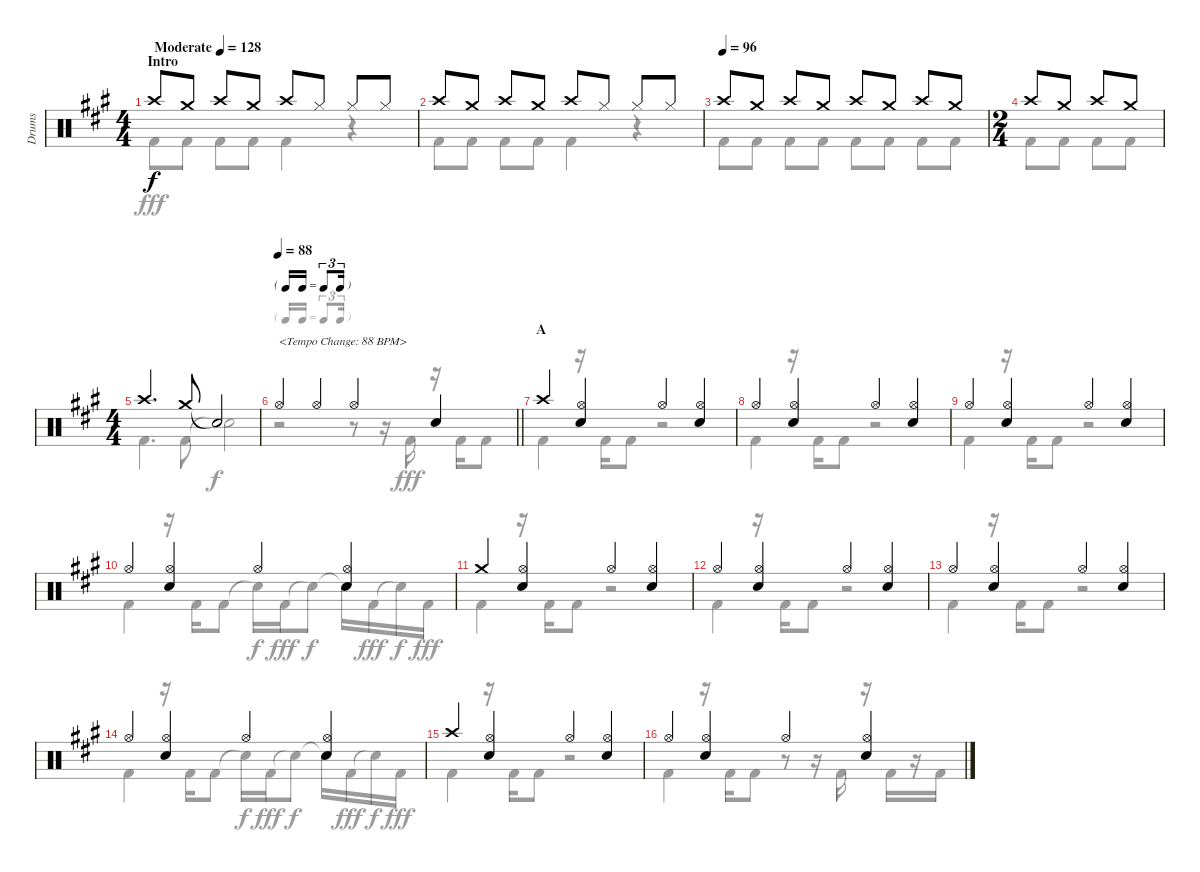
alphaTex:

\track ("Drums" "Drums") {instrument percussion}
\staff {score}
\articulation defaults
\voice
\ts (4 4)
\section ("" "Intro")
\tempo (128 "Moderate")
\clef neutral
\ks a "Crash high (hit)".8{dy f} "Crash medium (hit)".8 "Crash high (hit)".8 "Crash medium (hit)".8 "Crash high (hit)".8 "Hi-Hat (closed)".8 "Hi-Hat (closed)".8 "Hi-Hat (closed)".8
|
"Crash high (hit)".8 "Crash medium (hit)".8 "Crash high (hit)".8 "Crash medium (hit)".8 "Crash high (hit)".8 "Hi-Hat (closed)".8 "Hi-Hat (closed)".8 "Hi-Hat (closed)".8 |
\tempo (96)
"Crash high (hit)".8 "Crash medium (hit)".8 "Crash high (hit)".8 "Crash medium (hit)".8 "Crash high (hit)".8 "Crash medium (hit)".8 "Crash high (hit)".8 "Crash medium (hit)".8 |
\ts (2 4)
"Crash high (hit)".8 "Crash medium (hit)".8 "Crash high (hit)".8 "Crash medium (hit)".8 |
\ts (4 4)
"Crash high (hit)".4{d} "Crash medium (hit)".8 "Snare (hit)"{t}.2 |
\tf triplet16th
\tempo 88
\barLineRight lightlight "Hi-Hat (open)".4{txt "<Tempo Change: 88 BPM>"} "Hi-Hat (open)".4 "Hi-Hat (open)".4 "Snare (hit) 2".4
|
\section ("" "A")
"Crash high (hit)".4 ("Hi-Hat (open)" "Snare (hit) 2").4 "Hi-Hat (open)".4 ("Hi-Hat (open)" "Snare (hit) 2").4 |
"Hi-Hat (open)".4 ("Hi-Hat (open)" "Snare (hit) 2").4 "Hi-Hat (open)".4 ("Hi-Hat (open)" "Snare (hit) 2").4 |
"Hi-Hat (open)".4 ("Hi-Hat (open)" "Snare (hit) 2").4 "Hi-Hat (open)".4 ("Hi-Hat (open)" "Snare (hit) 2").4 |
"Hi-Hat (open)".4 ("Hi-Hat (open)" "Snare (hit) 2").4 "Hi-Hat (open)".4 ("Hi-Hat (open)" "Snare (hit) 2").4 |
"Crash medium (hit)".4 ("Hi-Hat (open)" "Snare (hit) 2").4 "Hi-Hat (open)".4 ("Hi-Hat (open)" "Snare (hit) 2").4 |
"Hi-Hat (open)".4 ("Hi-Hat (open)" "Snare (hit) 2").4 "Hi-Hat (open)".4 ("Hi-Hat (open)" "Snare (hit) 2").4 |
"Hi-Hat (open)".4 ("Hi-Hat (open)" "Snare (hit) 2").4 "Hi-Hat (open)".4 ("Hi-Hat (open)" "Snare (hit) 2").4 |
"Hi-Hat (open)".4 ("Hi-Hat (open)" "Snare (hit) 2").4 "Hi-Hat (open)".4 ("Hi-Hat (open)" "Snare (hit) 2").4 |
"Crash high (hit)".4 ("Hi-Hat (open)" "Snare (hit) 2").4 "Hi-Hat (open)".4 ("Hi-Hat (open)" "Snare (hit) 2").4 |
"Hi-Hat (open)".4 ("Hi-Hat (open)" "Snare (hit) 2").4 "Hi-Hat (open)".4 ("Hi-Hat (open)" "Snare (hit) 2").4
\voice
\clef neutral
\ottava regular
\simile none
\ks a "Kick (hit) 2".8{dy fff} "Kick (hit) 2".8 "Kick (hit) 2".8 "Kick (hit) 2".8 "Kick (hit) 2".4
r.4 |
"Kick (hit) 2".8 "Kick (hit) 2".8 "Kick (hit) 2".8 "Kick (hit) 2".8 "Kick (hit) 2".4 r.4 |
"Kick (hit) 2".8 "Kick (hit) 2".8 "Kick (hit) 2".8 "Kick (hit) 2".8 "Kick (hit) 2".8 "Kick (hit) 2".8 "Kick (hit) 2".8 "Kick (hit) 2".8 |
"Kick (hit) 2".8 "Kick (hit) 2".8 "Kick (hit) 2".8 "Kick (hit) 2".8 |
"Kick (hit) 2".4{d} "Kick (hit) 2".8 "Snare (hit)"{t}.2{dy f} |
\barLineRight lightlight
r.2 r.8 r.16 "Kick (hit) 2".16{dy fff} r.16 "Kick (hit) 2".16 "Kick (hit) 2".8 |
"Kick (hit) 2".4 r.16 "Kick (hit) 2".16 "Kick (hit) 2".8 r.2 |
"Kick (hit) 2".4 r.16 "Kick (hit) 2".16 "Kick (hit) 2".8 r.2 |
"Kick (hit) 2".4 r.16 "Kick (hit) 2".16 "Kick (hit) 2".8 r.2 |
"Kick (hit) 2".4 r.16 "Kick (hit) 2".16 "Kick (hit) 2".8 "Snare (hit)"{t}.16{dy f} "Kick (hit) 2".16{dy fff} "Snare (hit)"{t}.8{dy f} "Snare (hit)"{t}.16 "Kick (hit) 2".16{dy fff} "Snare (hit)"{t}.16{dy f} "Kick (hit) 2".16{dy fff} |
"Kick (hit) 2".4 r.16 "Kick (hit) 2".16 "Kick (hit) 2".8 r.2 |
"Kick (hit) 2".4 r.16 "Kick (hit) 2".16 "Kick (hit) 2".8 r.2 |
"Kick (hit) 2".4 r.16 "Kick (hit) 2".16 "Kick (hit) 2".8 r.2 |
"Kick (hit) 2".4 r.16 "Kick (hit) 2".16 "Kick (hit) 2".8 "Snare (hit)"{t}.16{dy f} "Kick (hit) 2".16{dy fff} "Snare (hit)"{t}.8{dy f} "Snare (hit)"{t}.16 "Kick (hit) 2".16{dy fff} "Snare (hit)"{t}.16{dy f} "Kick (hit) 2".16{dy fff} |
"Kick (hit) 2".4 r.16 "Kick (hit) 2".16 "Kick (hit) 2".8 r.2 |
"Kick (hit) 2".4 r.16 "Kick (hit) 2".16 "Kick (hit) 2".8 r.8 r.16 "Kick (hit) 2".16 r.16 "Kick (hit) 2".16 r.16 "Kick (hit) 2".16
